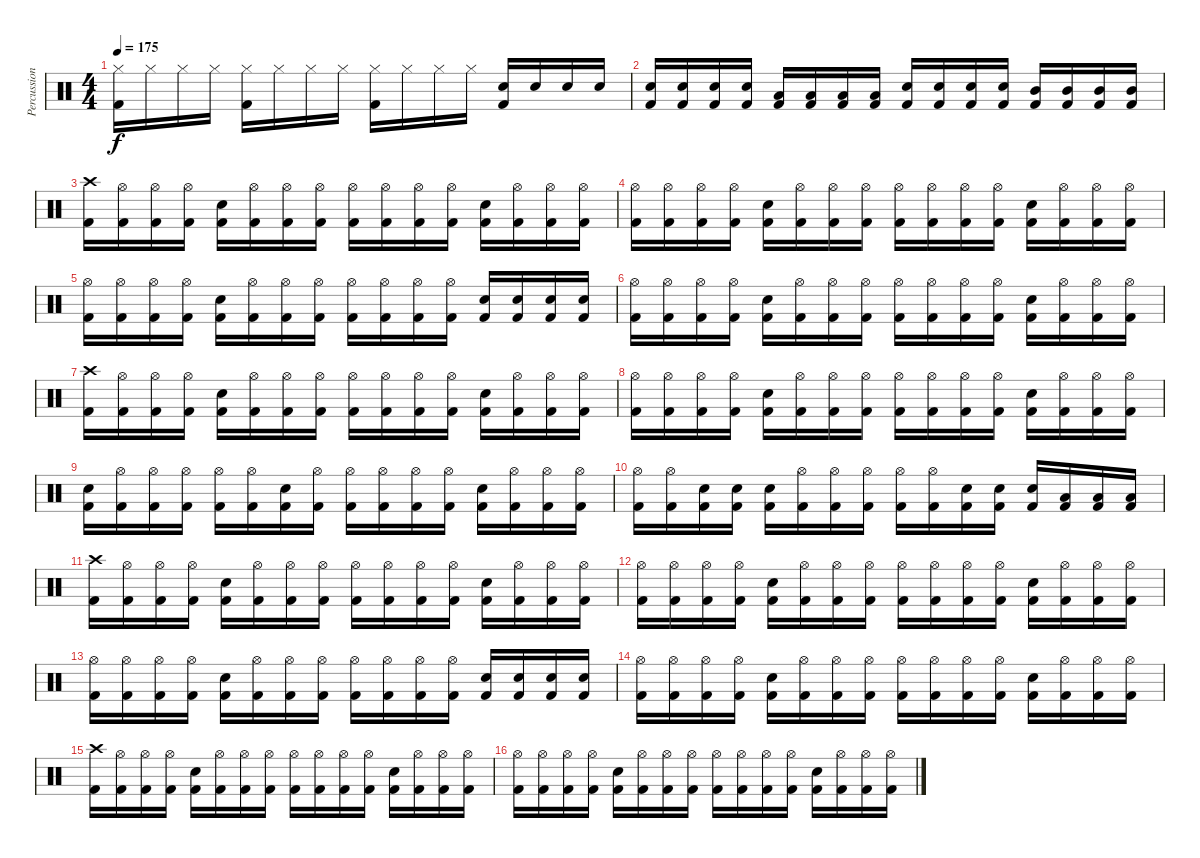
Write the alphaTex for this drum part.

\track ("Percussion" "Percussion") {instrument percussion}
\staff {score}
\articulation defaults
\ts (4 4)
\tempo 175
\clef neutral
\ks c
("Kick (hit) 2" "Hi-Hat (closed)").16{dy f} "Hi-Hat (closed)".16 "Hi-Hat (closed)".16 "Hi-Hat (closed)".16 ("Kick (hit) 2" "Hi-Hat (closed)").16 "Hi-Hat (closed)".16 "Hi-Hat (closed)".16 "Hi-Hat (closed)".16 ("Kick (hit) 2" "Hi-Hat (closed)").16 "Hi-Hat (closed)".16 "Hi-Hat (closed)".16 "Hi-Hat (closed)".16 ("Kick (hit) 2" "Snare (hit) 2").16 "Snare (hit) 2".16 "Snare (hit) 2".16 "Snare (hit) 2".16 |
("Kick (hit) 2" "Snare (hit) 2").16 ("Kick (hit) 2" "Snare (hit) 2").16 ("Kick (hit) 2" "Snare (hit) 2").16 ("Kick (hit) 2" "Snare (hit) 2").16 ("Kick (hit) 2" "Low Tom (hit)").16 ("Kick (hit) 2" "Low Tom (hit)").16 ("Kick (hit) 2" "Low Tom (hit)").16 ("Kick (hit) 2" "Low Tom (hit)").16 ("Kick (hit) 2" "Snare (hit) 2").16 ("Kick (hit) 2" "Snare (hit) 2").16 ("Kick (hit) 2" "Snare (hit) 2").16 ("Kick (hit) 2" "Snare (hit) 2").16 ("Kick (hit) 2" "Mid Tom (hit)").16 ("Kick (hit) 2" "Mid Tom (hit)").16 ("Kick (hit) 2" "Mid Tom (hit)").16 ("Kick (hit) 2" "Mid Tom (hit)").16 |
("Kick (hit) 2" "Crash high (hit)").16 ("Kick (hit) 2" "Hi-Hat (open)").16 ("Kick (hit) 2" "Hi-Hat (open)").16 ("Kick (hit) 2" "Hi-Hat (open)").16 ("Kick (hit) 2" "Snare (hit) 2").16 ("Kick (hit) 2" "Hi-Hat (open)").16 ("Kick (hit) 2" "Hi-Hat (open)").16 ("Kick (hit) 2" "Hi-Hat (open)").16 ("Kick (hit) 2" "Hi-Hat (open)").16 ("Kick (hit) 2" "Hi-Hat (open)").16 ("Kick (hit) 2" "Hi-Hat (open)").16 ("Kick (hit) 2" "Hi-Hat (open)").16 ("Kick (hit) 2" "Snare (hit) 2").16 ("Kick (hit) 2" "Hi-Hat (open)").16 ("Kick (hit) 2" "Hi-Hat (open)").16 ("Kick (hit) 2" "Hi-Hat (open)").16 |
("Kick (hit) 2" "Hi-Hat (open)").16 ("Kick (hit) 2" "Hi-Hat (open)").16 ("Kick (hit) 2" "Hi-Hat (open)").16 ("Kick (hit) 2" "Hi-Hat (open)").16 ("Kick (hit) 2" "Snare (hit) 2").16 ("Kick (hit) 2" "Hi-Hat (open)").16 ("Kick (hit) 2" "Hi-Hat (open)").16 ("Kick (hit) 2" "Hi-Hat (open)").16 ("Kick (hit) 2" "Hi-Hat (open)").16 ("Kick (hit) 2" "Hi-Hat (open)").16 ("Kick (hit) 2" "Hi-Hat (open)").16 ("Kick (hit) 2" "Hi-Hat (open)").16 ("Kick (hit) 2" "Snare (hit) 2").16 ("Kick (hit) 2" "Hi-Hat (open)").16 ("Kick (hit) 2" "Hi-Hat (open)").16 ("Kick (hit) 2" "Hi-Hat (open)").16 |
("Kick (hit) 2" "Hi-Hat (open)").16 ("Kick (hit) 2" "Hi-Hat (open)").16 ("Kick (hit) 2" "Hi-Hat (open)").16 ("Kick (hit) 2" "Hi-Hat (open)").16 ("Kick (hit) 2" "Snare (hit) 2").16 ("Kick (hit) 2" "Hi-Hat (open)").16 ("Kick (hit) 2" "Hi-Hat (open)").16 ("Kick (hit) 2" "Hi-Hat (open)").16 ("Kick (hit) 2" "Hi-Hat (open)").16 ("Kick (hit) 2" "Hi-Hat (open)").16 ("Kick (hit) 2" "Hi-Hat (open)").16 ("Kick (hit) 2" "Hi-Hat (open)").16 ("Kick (hit) 2" "Snare (hit) 2").16 ("Kick (hit) 2" "Snare (hit) 2").16 ("Kick (hit) 2" "Snare (hit) 2").16 ("Kick (hit) 2" "Snare (hit) 2").16 |
("Kick (hit) 2" "Hi-Hat (open)").16 ("Kick (hit) 2" "Hi-Hat (open)").16 ("Kick (hit) 2" "Hi-Hat (open)").16 ("Kick (hit) 2" "Hi-Hat (open)").16 ("Kick (hit) 2" "Snare (hit) 2").16 ("Kick (hit) 2" "Hi-Hat (open)").16 ("Kick (hit) 2" "Hi-Hat (open)").16 ("Kick (hit) 2" "Hi-Hat (open)").16 ("Kick (hit) 2" "Hi-Hat (open)").16 ("Kick (hit) 2" "Hi-Hat (open)").16 ("Kick (hit) 2" "Hi-Hat (open)").16 ("Kick (hit) 2" "Hi-Hat (open)").16 ("Kick (hit) 2" "Snare (hit) 2").16 ("Kick (hit) 2" "Hi-Hat (open)").16 ("Kick (hit) 2" "Hi-Hat (open)").16 ("Kick (hit) 2" "Hi-Hat (open)").16 |
("Kick (hit) 2" "Crash high (hit)").16 ("Kick (hit) 2" "Hi-Hat (open)").16 ("Kick (hit) 2" "Hi-Hat (open)").16 ("Kick (hit) 2" "Hi-Hat (open)").16 ("Kick (hit) 2" "Snare (hit) 2").16 ("Kick (hit) 2" "Hi-Hat (open)").16 ("Kick (hit) 2" "Hi-Hat (open)").16 ("Kick (hit) 2" "Hi-Hat (open)").16 ("Kick (hit) 2" "Hi-Hat (open)").16 ("Kick (hit) 2" "Hi-Hat (open)").16 ("Kick (hit) 2" "Hi-Hat (open)").16 ("Kick (hit) 2" "Hi-Hat (open)").16 ("Kick (hit) 2" "Snare (hit) 2").16 ("Kick (hit) 2" "Hi-Hat (open)").16 ("Kick (hit) 2" "Hi-Hat (open)").16 ("Kick (hit) 2" "Hi-Hat (open)").16 |
("Kick (hit) 2" "Hi-Hat (open)").16 ("Kick (hit) 2" "Hi-Hat (open)").16 ("Kick (hit) 2" "Hi-Hat (open)").16 ("Kick (hit) 2" "Hi-Hat (open)").16 ("Kick (hit) 2" "Snare (hit) 2").16 ("Kick (hit) 2" "Hi-Hat (open)").16 ("Kick (hit) 2" "Hi-Hat (open)").16 ("Kick (hit) 2" "Hi-Hat (open)").16 ("Kick (hit) 2" "Hi-Hat (open)").16 ("Kick (hit) 2" "Hi-Hat (open)").16 ("Kick (hit) 2" "Hi-Hat (open)").16 ("Kick (hit) 2" "Hi-Hat (open)").16 ("Kick (hit) 2" "Snare (hit) 2").16 ("Kick (hit) 2" "Hi-Hat (open)").16 ("Kick (hit) 2" "Hi-Hat (open)").16 ("Kick (hit) 2" "Hi-Hat (open)").16 |
("Kick (hit) 2" "Snare (hit) 2").16 ("Kick (hit) 2" "Hi-Hat (open)").16 ("Kick (hit) 2" "Hi-Hat (open)").16 ("Kick (hit) 2" "Hi-Hat (open)").16 ("Kick (hit) 2" "Hi-Hat (open)").16 ("Kick (hit) 2" "Hi-Hat (open)").16 ("Kick (hit) 2" "Snare (hit) 2").16 ("Kick (hit) 2" "Hi-Hat (open)").16 ("Kick (hit) 2" "Hi-Hat (open)").16 ("Kick (hit) 2" "Hi-Hat (open)").16 ("Kick (hit) 2" "Hi-Hat (open)").16 ("Kick (hit) 2" "Hi-Hat (open)").16 ("Kick (hit) 2" "Snare (hit) 2").16 ("Kick (hit) 2" "Hi-Hat (open)").16 ("Kick (hit) 2" "Hi-Hat (open)").16 ("Kick (hit) 2" "Hi-Hat (open)").16 |
("Kick (hit) 2" "Hi-Hat (open)").16 ("Kick (hit) 2" "Hi-Hat (open)").16 ("Kick (hit) 2" "Snare (hit) 2").16 ("Kick (hit) 2" "Snare (hit) 2").16 ("Kick (hit) 2" "Snare (hit) 2").16 ("Kick (hit) 2" "Hi-Hat (open)").16 ("Kick (hit) 2" "Hi-Hat (open)").16 ("Kick (hit) 2" "Hi-Hat (open)").16 ("Kick (hit) 2" "Hi-Hat (open)").16 ("Kick (hit) 2" "Hi-Hat (open)").16 ("Kick (hit) 2" "Snare (hit) 2").16 ("Kick (hit) 2" "Snare (hit) 2").16 ("Kick (hit) 2" "Snare (hit) 2").16 ("Kick (hit) 2" "Low Tom (hit)").16 ("Kick (hit) 2" "Low Tom (hit)").16 ("Kick (hit) 2" "Low Tom (hit)").16 |
("Kick (hit) 2" "Crash high (hit)").16 ("Kick (hit) 2" "Hi-Hat (open)").16 ("Kick (hit) 2" "Hi-Hat (open)").16 ("Kick (hit) 2" "Hi-Hat (open)").16 ("Kick (hit) 2" "Snare (hit) 2").16 ("Kick (hit) 2" "Hi-Hat (open)").16 ("Kick (hit) 2" "Hi-Hat (open)").16 ("Kick (hit) 2" "Hi-Hat (open)").16 ("Kick (hit) 2" "Hi-Hat (open)").16 ("Kick (hit) 2" "Hi-Hat (open)").16 ("Kick (hit) 2" "Hi-Hat (open)").16 ("Kick (hit) 2" "Hi-Hat (open)").16 ("Kick (hit) 2" "Snare (hit) 2").16 ("Kick (hit) 2" "Hi-Hat (open)").16 ("Kick (hit) 2" "Hi-Hat (open)").16 ("Kick (hit) 2" "Hi-Hat (open)").16 |
("Kick (hit) 2" "Hi-Hat (open)").16 ("Kick (hit) 2" "Hi-Hat (open)").16 ("Kick (hit) 2" "Hi-Hat (open)").16 ("Kick (hit) 2" "Hi-Hat (open)").16 ("Kick (hit) 2" "Snare (hit) 2").16 ("Kick (hit) 2" "Hi-Hat (open)").16 ("Kick (hit) 2" "Hi-Hat (open)").16 ("Kick (hit) 2" "Hi-Hat (open)").16 ("Kick (hit) 2" "Hi-Hat (open)").16 ("Kick (hit) 2" "Hi-Hat (open)").16 ("Kick (hit) 2" "Hi-Hat (open)").16 ("Kick (hit) 2" "Hi-Hat (open)").16 ("Kick (hit) 2" "Snare (hit) 2").16 ("Kick (hit) 2" "Hi-Hat (open)").16 ("Kick (hit) 2" "Hi-Hat (open)").16 ("Kick (hit) 2" "Hi-Hat (open)").16 |
("Kick (hit) 2" "Hi-Hat (open)").16 ("Kick (hit) 2" "Hi-Hat (open)").16 ("Kick (hit) 2" "Hi-Hat (open)").16 ("Kick (hit) 2" "Hi-Hat (open)").16 ("Kick (hit) 2" "Snare (hit) 2").16 ("Kick (hit) 2" "Hi-Hat (open)").16 ("Kick (hit) 2" "Hi-Hat (open)").16 ("Kick (hit) 2" "Hi-Hat (open)").16 ("Kick (hit) 2" "Hi-Hat (open)").16 ("Kick (hit) 2" "Hi-Hat (open)").16 ("Kick (hit) 2" "Hi-Hat (open)").16 ("Kick (hit) 2" "Hi-Hat (open)").16 ("Kick (hit) 2" "Snare (hit) 2").16 ("Kick (hit) 2" "Snare (hit) 2").16 ("Kick (hit) 2" "Snare (hit) 2").16 ("Kick (hit) 2" "Snare (hit) 2").16 |
("Kick (hit) 2" "Hi-Hat (open)").16 ("Kick (hit) 2" "Hi-Hat (open)").16 ("Kick (hit) 2" "Hi-Hat (open)").16 ("Kick (hit) 2" "Hi-Hat (open)").16 ("Kick (hit) 2" "Snare (hit) 2").16 ("Kick (hit) 2" "Hi-Hat (open)").16 ("Kick (hit) 2" "Hi-Hat (open)").16 ("Kick (hit) 2" "Hi-Hat (open)").16 ("Kick (hit) 2" "Hi-Hat (open)").16 ("Kick (hit) 2" "Hi-Hat (open)").16 ("Kick (hit) 2" "Hi-Hat (open)").16 ("Kick (hit) 2" "Hi-Hat (open)").16 ("Kick (hit) 2" "Snare (hit) 2").16 ("Kick (hit) 2" "Hi-Hat (open)").16 ("Kick (hit) 2" "Hi-Hat (open)").16 ("Kick (hit) 2" "Hi-Hat (open)").16 |
("Kick (hit) 2" "Crash high (hit)").16 ("Kick (hit) 2" "Hi-Hat (open)").16 ("Kick (hit) 2" "Hi-Hat (open)").16 ("Kick (hit) 2" "Hi-Hat (open)").16 ("Kick (hit) 2" "Snare (hit) 2").16 ("Kick (hit) 2" "Hi-Hat (open)").16 ("Kick (hit) 2" "Hi-Hat (open)").16 ("Kick (hit) 2" "Hi-Hat (open)").16 ("Kick (hit) 2" "Hi-Hat (open)").16 ("Kick (hit) 2" "Hi-Hat (open)").16 ("Kick (hit) 2" "Hi-Hat (open)").16 ("Kick (hit) 2" "Hi-Hat (open)").16 ("Kick (hit) 2" "Snare (hit) 2").16 ("Kick (hit) 2" "Hi-Hat (open)").16 ("Kick (hit) 2" "Hi-Hat (open)").16 ("Kick (hit) 2" "Hi-Hat (open)").16 |
("Kick (hit) 2" "Hi-Hat (open)").16 ("Kick (hit) 2" "Hi-Hat (open)").16 ("Kick (hit) 2" "Hi-Hat (open)").16 ("Kick (hit) 2" "Hi-Hat (open)").16 ("Kick (hit) 2" "Snare (hit) 2").16 ("Kick (hit) 2" "Hi-Hat (open)").16 ("Kick (hit) 2" "Hi-Hat (open)").16 ("Kick (hit) 2" "Hi-Hat (open)").16 ("Kick (hit) 2" "Hi-Hat (open)").16 ("Kick (hit) 2" "Hi-Hat (open)").16 ("Kick (hit) 2" "Hi-Hat (open)").16 ("Kick (hit) 2" "Hi-Hat (open)").16 ("Kick (hit) 2" "Snare (hit) 2").16 ("Kick (hit) 2" "Hi-Hat (open)").16 ("Kick (hit) 2" "Hi-Hat (open)").16 ("Kick (hit) 2" "Hi-Hat (open)").16
